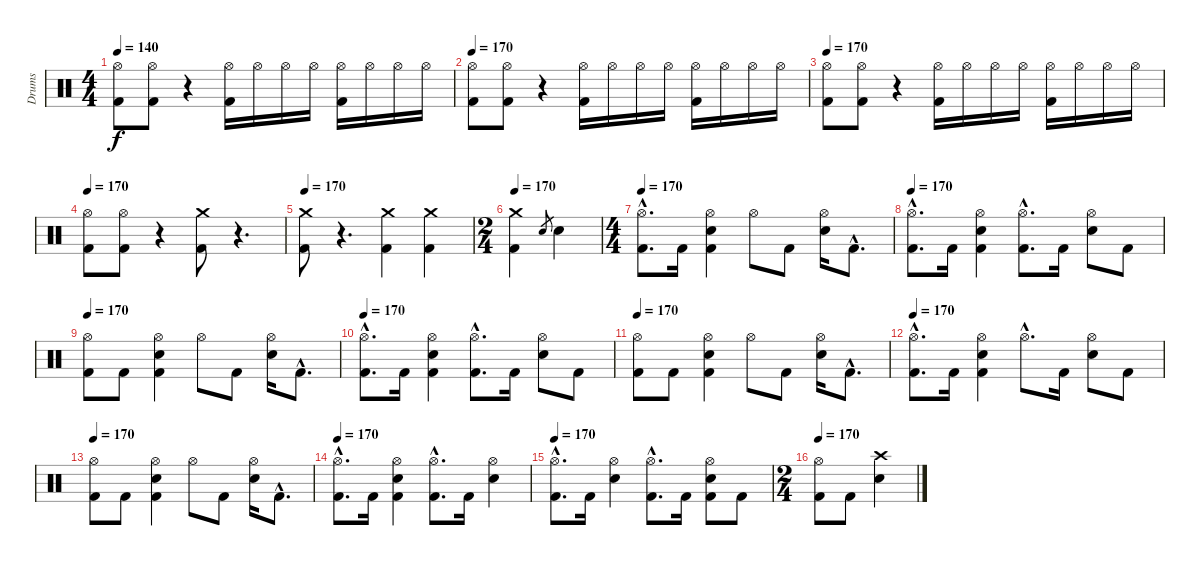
\track ("Drums" "Drums") {instrument percussion}
\staff {score}
\articulation defaults
\ts (4 4)
\tempo 140
\tempo 170
\tempo 140
\clef neutral
\ks c
("Hi-Hat (open)" "Kick (hit) 2").8{dy f} ("Hi-Hat (open)" "Kick (hit) 2").8 r.4 ("Kick (hit) 2" "Hi-Hat (open)").16 "Hi-Hat (open)".16 "Hi-Hat (open)".16 "Hi-Hat (open)".16 ("Kick (hit) 2" "Hi-Hat (open)").16 "Hi-Hat (open)".16 "Hi-Hat (open)".16 "Hi-Hat (open)".16 |
\tempo 170
("Hi-Hat (open)" "Kick (hit) 2").8 ("Hi-Hat (open)" "Kick (hit) 2").8 r.4 ("Kick (hit) 2" "Hi-Hat (open)").16 "Hi-Hat (open)".16 "Hi-Hat (open)".16 "Hi-Hat (open)".16 ("Kick (hit) 2" "Hi-Hat (open)").16 "Hi-Hat (open)".16 "Hi-Hat (open)".16 "Hi-Hat (open)".16 |
\tempo 170
("Kick (hit) 2" "Hi-Hat (open)").8 ("Kick (hit) 2" "Hi-Hat (open)").8 r.4 ("Kick (hit) 2" "Hi-Hat (open)").16 "Hi-Hat (open)".16 "Hi-Hat (open)".16 "Hi-Hat (open)".16 ("Kick (hit) 2" "Hi-Hat (open)").16 "Hi-Hat (open)".16 "Hi-Hat (open)".16 "Hi-Hat (open)".16 |
\tempo 170
("Kick (hit) 2" "Hi-Hat (open)").8 ("Kick (hit) 2" "Hi-Hat (open)").8 r.4 ("Kick (hit) 2" "Crash medium (hit)").8 r.4{d} |
\tempo 170
("Kick (hit) 2" "Crash medium (hit)").8 r.4{d} ("Kick (hit) 2" "Crash medium (hit)").4 ("Kick (hit) 2" "Crash medium (hit)").4 |
\ts (2 4)
\tempo 170
("Kick (hit) 2" "Crash medium (hit)").4 "Electric Snare (hit)".8{gr} "Electric Snare (hit)".4 |
\ts (4 4)
\tempo 170
("Hi-Hat (open)"{hac} "Kick (hit) 2"{hac}).8{d} "Kick (hit) 2".16 ("Hi-Hat (open)" "Electric Snare (hit)" "Kick (hit) 2").4 "Hi-Hat (open)".8 "Kick (hit) 2".8 ("Electric Snare (hit)" "Hi-Hat (open)").16 "Kick (hit) 2"{hac}.8{d} |
\tempo 170
("Hi-Hat (open)"{hac} "Kick (hit) 2"{hac}).8{d} "Kick (hit) 2".16 ("Hi-Hat (open)" "Electric Snare (hit)" "Kick (hit) 2").4 ("Hi-Hat (open)"{hac} "Kick (hit) 2"{hac}).8{d} "Kick (hit) 2".16 ("Hi-Hat (open)" "Electric Snare (hit)").8 "Kick (hit) 2".8 |
\tempo 170
("Hi-Hat (open)" "Kick (hit) 2").8 "Kick (hit) 2".8 ("Hi-Hat (open)" "Electric Snare (hit)" "Kick (hit) 2").4 "Hi-Hat (open)".8 "Kick (hit) 2".8 ("Electric Snare (hit)" "Hi-Hat (open)").16 "Kick (hit) 2"{hac}.8{d} |
\tempo 170
("Hi-Hat (open)"{hac} "Kick (hit) 2"{hac}).8{d} "Kick (hit) 2".16 ("Hi-Hat (open)" "Electric Snare (hit)" "Kick (hit) 2").4 ("Kick (hit) 2"{hac} "Hi-Hat (open)"{hac}).8{d} "Kick (hit) 2".16 ("Hi-Hat (open)" "Electric Snare (hit)").8 "Kick (hit) 2".8 |
\tempo 170
("Hi-Hat (open)" "Kick (hit) 2").8 "Kick (hit) 2".8 ("Hi-Hat (open)" "Electric Snare (hit)" "Kick (hit) 2").4 "Hi-Hat (open)".8 "Kick (hit) 2".8 ("Electric Snare (hit)" "Hi-Hat (open)").16 "Kick (hit) 2"{hac}.8{d} |
\tempo 170
("Hi-Hat (open)"{hac} "Kick (hit) 2"{hac}).8{d} "Kick (hit) 2".16 ("Hi-Hat (open)" "Electric Snare (hit)" "Kick (hit) 2").4 "Hi-Hat (open)"{hac}.8{d} "Kick (hit) 2".16 ("Hi-Hat (open)" "Electric Snare (hit)").8 "Kick (hit) 2".8 |
\tempo 170
("Hi-Hat (open)" "Kick (hit) 2").8 "Kick (hit) 2".8 ("Hi-Hat (open)" "Electric Snare (hit)" "Kick (hit) 2").4 "Hi-Hat (open)".8 "Kick (hit) 2".8 ("Electric Snare (hit)" "Hi-Hat (open)").16 "Kick (hit) 2"{hac}.8{d} |
\tempo 170
("Hi-Hat (open)"{hac} "Kick (hit) 2"{hac}).8{d} "Kick (hit) 2".16 ("Hi-Hat (open)" "Electric Snare (hit)" "Kick (hit) 2").4 ("Kick (hit) 2"{hac} "Hi-Hat (open)"{hac}).8{d} "Kick (hit) 2".16 ("Hi-Hat (open)" "Electric Snare (hit)").4 |
\tempo 170
("Hi-Hat (open)"{hac} "Kick (hit) 2"{hac}).8{d} "Kick (hit) 2".16 ("Hi-Hat (open)" "Electric Snare (hit)").4 ("Hi-Hat (open)"{hac} "Kick (hit) 2"{hac}).8{d} "Kick (hit) 2".16 ("Kick (hit) 2" "Hi-Hat (open)" "Electric Snare (hit)").8 "Kick (hit) 2".8 |
\ts (2 4)
\tempo 170
("Hi-Hat (open)" "Kick (hit) 2").8 "Kick (hit) 2".8 ("Electric Snare (hit)" "Crash high (hit)").4
